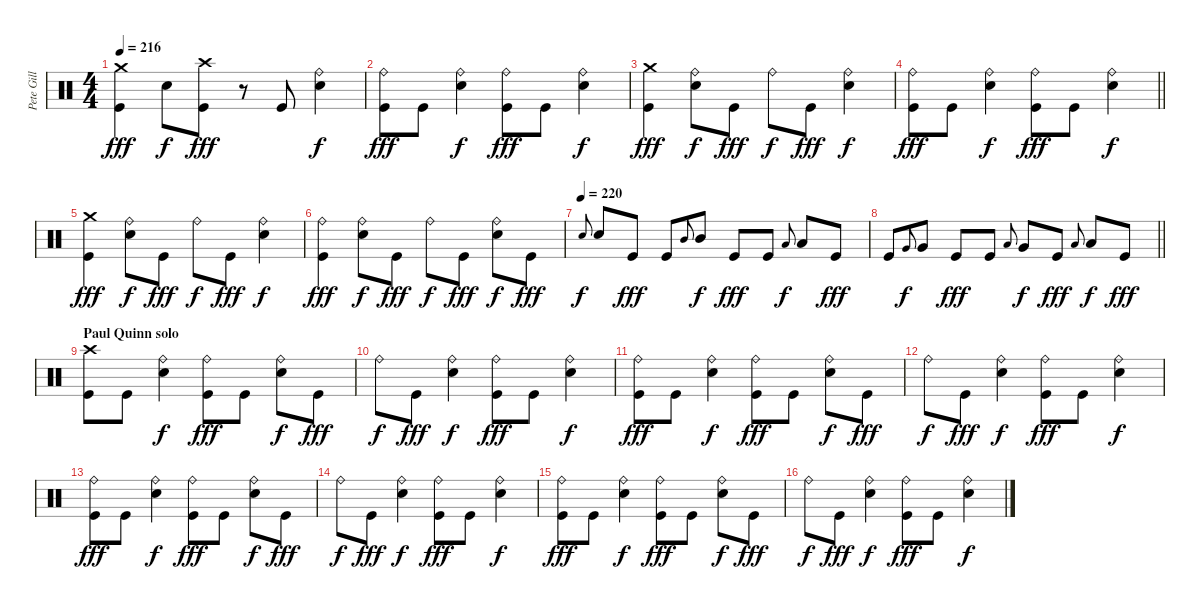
\track ("Pete Gill" "Pete Gill") {instrument percussion}
\staff {score}
\articulation defaults
\ts (4 4)
\tempo 216
\clef neutral
\ks c
("Crash medium (hit)" "Kick (hit)").4{dy fff} "Electric Snare (hit)".8{dy f} ("Crash high (hit)" "Kick (hit)").8{dy fff} r.8 "Kick (hit)".8 ("Ride (bell)" "Electric Snare (hit)").4{dy f} |
("Ride (bell)" "Kick (hit)").8{dy fff} "Kick (hit)".8 ("Ride (bell)" "Electric Snare (hit)").4{dy f} ("Ride (bell)" "Kick (hit)").8{dy fff} "Kick (hit)".8 ("Ride (bell)" "Electric Snare (hit)").4{dy f} |
("Crash medium (hit)" "Kick (hit)").4{dy fff} ("Ride (bell)" "Electric Snare (hit)").8{dy f} "Kick (hit)".8{dy fff} "Ride (bell)".8{dy f} "Kick (hit)".8{dy fff} ("Ride (bell)" "Electric Snare (hit)").4{dy f} |
\barLineRight lightlight
("Ride (bell)" "Kick (hit)").8{dy fff} "Kick (hit)".8 ("Ride (bell)" "Electric Snare (hit)").4{dy f} ("Ride (bell)" "Kick (hit)").8{dy fff} "Kick (hit)".8 ("Ride (bell)" "Electric Snare (hit)").4{dy f} |
\section ("" "")
("Crash medium (hit)" "Kick (hit)").4{dy fff} ("Ride (bell)" "Electric Snare (hit)").8{dy f} "Kick (hit)".8{dy fff} "Ride (bell)".8{dy f} "Kick (hit)".8{dy fff} ("Ride (bell)" "Electric Snare (hit)").4{dy f} |
("Ride (bell)" "Kick (hit)").4{dy fff} ("Ride (bell)" "Electric Snare (hit)").8{dy f} "Kick (hit)".8{dy fff} "Ride (bell)".8{dy f} "Kick (hit)".8{dy fff} ("Ride (bell)" "Electric Snare (hit)").8{dy f} "Kick (hit)".8{dy fff} |
\tempo (220)
"Electric Snare (hit)".8{gr onbeat dy f} "Electric Snare (hit)".8 "Kick (hit)".8{dy fff} "Kick (hit)".8 "Mid Tom (hit)".8{gr onbeat} "Mid Tom (hit)".8{dy f} "Kick (hit)".8{dy fff} "Kick (hit)".8 "Low Tom (hit)".8{gr onbeat dy f} "Low Tom (hit)".8 "Kick (hit)".8{dy fff} |
\barLineRight lightlight "Kick (hit)".8 "Very Low Tom (hit)".8{gr onbeat dy f} "Very Low Tom (hit)".8 "Kick (hit)".8{dy fff} "Kick (hit)".8 "Low Floor Tom (hit)".8{gr onbeat} "Very Low Tom (hit)".8{dy f} "Kick (hit)".8{dy fff} "Low Floor Tom (hit)".8{gr onbeat} "Low Floor Tom (hit)".8{dy f} "Kick (hit)".8{dy fff}
|
\section ("" "Paul Quinn solo")
("Crash high (hit)" "Kick (hit)").8 "Kick (hit)".8 ("Ride (bell)" "Electric Snare (hit)").4{dy f} ("Ride (bell)" "Kick (hit)").8{dy fff} "Kick (hit)".8 ("Ride (bell)" "Electric Snare (hit)").8{dy f} "Kick (hit)".8{dy fff} |
"Ride (bell)".8{dy f} "Kick (hit)".8{dy fff} ("Ride (bell)" "Electric Snare (hit)").4{dy f} ("Ride (bell)" "Kick (hit)").8{dy fff} "Kick (hit)".8 ("Ride (bell)" "Electric Snare (hit)").4{dy f} |
("Ride (bell)" "Kick (hit)").8{dy fff} "Kick (hit)".8 ("Ride (bell)" "Electric Snare (hit)").4{dy f} ("Ride (bell)" "Kick (hit)").8{dy fff} "Kick (hit)".8 ("Ride (bell)" "Electric Snare (hit)").8{dy f} "Kick (hit)".8{dy fff} |
"Ride (bell)".8{dy f} "Kick (hit)".8{dy fff} ("Ride (bell)" "Electric Snare (hit)").4{dy f} ("Ride (bell)" "Kick (hit)").8{dy fff} "Kick (hit)".8 ("Ride (bell)" "Electric Snare (hit)").4{dy f} |
("Ride (bell)" "Kick (hit)").8{dy fff} "Kick (hit)".8 ("Ride (bell)" "Electric Snare (hit)").4{dy f} ("Ride (bell)" "Kick (hit)").8{dy fff} "Kick (hit)".8 ("Ride (bell)" "Electric Snare (hit)").8{dy f} "Kick (hit)".8{dy fff} |
"Ride (bell)".8{dy f} "Kick (hit)".8{dy fff} ("Ride (bell)" "Electric Snare (hit)").4{dy f} ("Ride (bell)" "Kick (hit)").8{dy fff} "Kick (hit)".8 ("Ride (bell)" "Electric Snare (hit)").4{dy f} |
("Ride (bell)" "Kick (hit)").8{dy fff} "Kick (hit)".8 ("Ride (bell)" "Electric Snare (hit)").4{dy f} ("Ride (bell)" "Kick (hit)").8{dy fff} "Kick (hit)".8 ("Ride (bell)" "Electric Snare (hit)").8{dy f} "Kick (hit)".8{dy fff} |
"Ride (bell)".8{dy f} "Kick (hit)".8{dy fff} ("Ride (bell)" "Electric Snare (hit)").4{dy f} ("Ride (bell)" "Kick (hit)").8{dy fff} "Kick (hit)".8 ("Ride (bell)" "Electric Snare (hit)").4{dy f}
